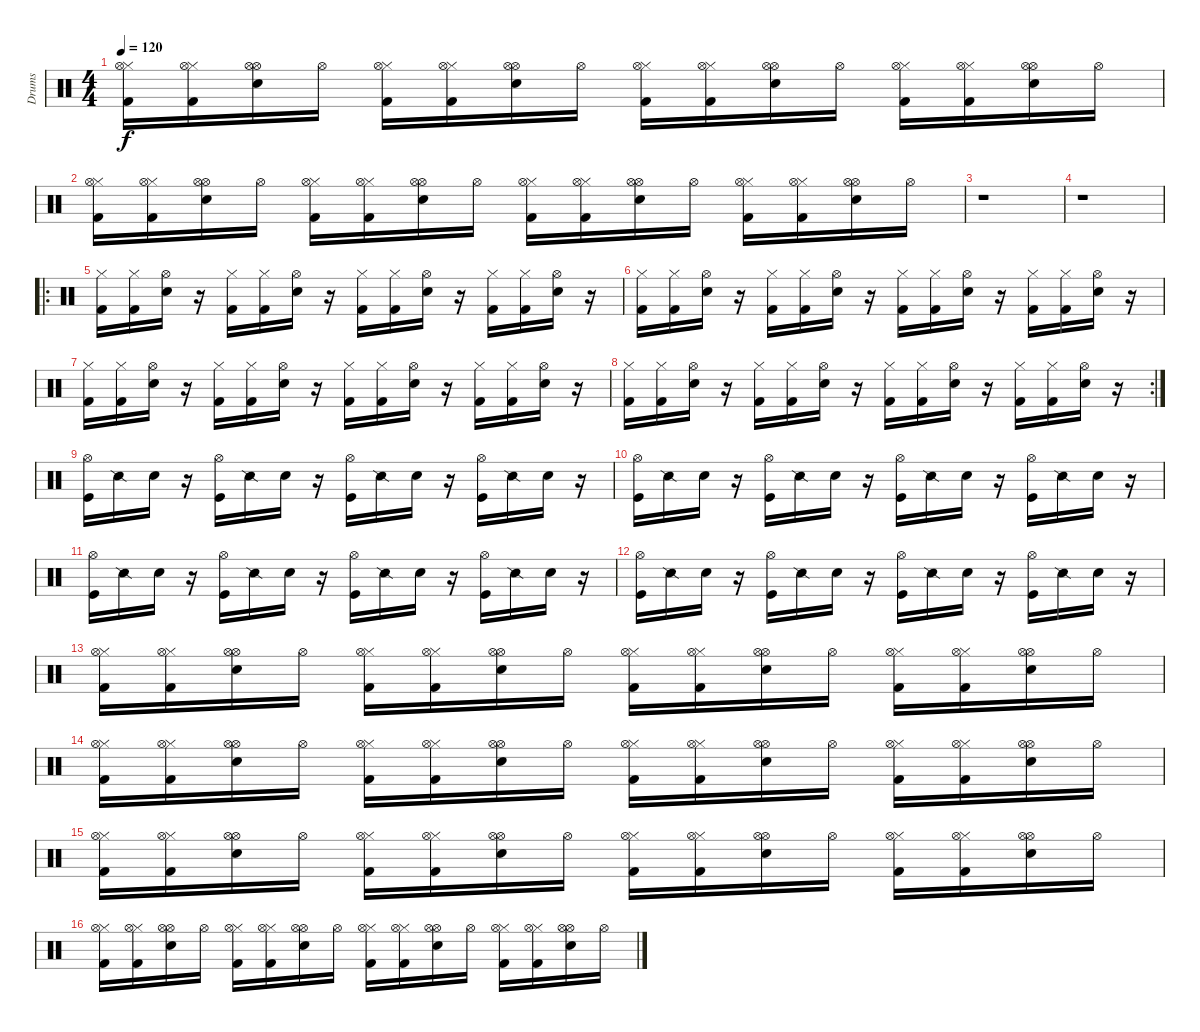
\track ("Drums" "Drums") {instrument percussion}
\staff {score}
\articulation defaults
\ts (4 4)
\tempo 120
\clef neutral
\ks c
("Hi-Hat (closed)" "Kick (hit) 2" "Hi-Hat (open)").16{dy f} ("Hi-Hat (closed)" "Kick (hit) 2" "Hi-Hat (open)").16 ("Hi-Hat (open)" "Snare (hit) 2" "Hi-Hat (open)").16 "Hi-Hat (open)".16 ("Hi-Hat (closed)" "Kick (hit) 2" "Hi-Hat (open)").16 ("Hi-Hat (closed)" "Kick (hit) 2" "Hi-Hat (open)").16 ("Hi-Hat (open)" "Snare (hit) 2" "Hi-Hat (open)").16 "Hi-Hat (open)".16 ("Hi-Hat (closed)" "Kick (hit) 2" "Hi-Hat (open)").16 ("Hi-Hat (closed)" "Kick (hit) 2" "Hi-Hat (open)").16 ("Hi-Hat (open)" "Snare (hit) 2" "Hi-Hat (open)").16 "Hi-Hat (open)".16 ("Hi-Hat (closed)" "Kick (hit) 2" "Hi-Hat (open)").16 ("Hi-Hat (closed)" "Kick (hit) 2" "Hi-Hat (open)").16 ("Hi-Hat (open)" "Snare (hit) 2" "Hi-Hat (open)").16 "Hi-Hat (open)".16 |
("Hi-Hat (closed)" "Kick (hit) 2" "Hi-Hat (open)").16 ("Hi-Hat (closed)" "Kick (hit) 2" "Hi-Hat (open)").16 ("Hi-Hat (open)" "Snare (hit) 2" "Hi-Hat (open)").16 "Hi-Hat (open)".16 ("Hi-Hat (closed)" "Kick (hit) 2" "Hi-Hat (open)").16 ("Hi-Hat (closed)" "Kick (hit) 2" "Hi-Hat (open)").16 ("Hi-Hat (open)" "Snare (hit) 2" "Hi-Hat (open)").16 "Hi-Hat (open)".16 ("Hi-Hat (closed)" "Kick (hit) 2" "Hi-Hat (open)").16 ("Hi-Hat (closed)" "Kick (hit) 2" "Hi-Hat (open)").16 ("Hi-Hat (open)" "Snare (hit) 2" "Hi-Hat (open)").16 "Hi-Hat (open)".16 ("Hi-Hat (closed)" "Kick (hit) 2" "Hi-Hat (open)").16 ("Hi-Hat (closed)" "Kick (hit) 2" "Hi-Hat (open)").16 ("Hi-Hat (open)" "Snare (hit) 2" "Hi-Hat (open)").16 "Hi-Hat (open)".16 |
r.1 |
r.1 |
\ro
("Hi-Hat (closed)" "Kick (hit) 2").16 ("Hi-Hat (closed)" "Kick (hit) 2").16 ("Hi-Hat (open)" "Snare (hit) 2").16 r.16 ("Hi-Hat (closed)" "Kick (hit) 2").16 ("Hi-Hat (closed)" "Kick (hit) 2").16 ("Hi-Hat (open)" "Snare (hit) 2").16 r.16 ("Hi-Hat (closed)" "Kick (hit) 2").16 ("Hi-Hat (closed)" "Kick (hit) 2").16 ("Hi-Hat (open)" "Snare (hit) 2").16 r.16 ("Hi-Hat (closed)" "Kick (hit) 2").16 ("Hi-Hat (closed)" "Kick (hit) 2").16 ("Hi-Hat (open)" "Snare (hit) 2").16 r.16 |
("Hi-Hat (closed)" "Kick (hit) 2").16 ("Hi-Hat (closed)" "Kick (hit) 2").16 ("Hi-Hat (open)" "Snare (hit) 2").16 r.16 ("Hi-Hat (closed)" "Kick (hit) 2").16 ("Hi-Hat (closed)" "Kick (hit) 2").16 ("Hi-Hat (open)" "Snare (hit) 2").16 r.16 ("Hi-Hat (closed)" "Kick (hit) 2").16 ("Hi-Hat (closed)" "Kick (hit) 2").16 ("Hi-Hat (open)" "Snare (hit) 2").16 r.16 ("Hi-Hat (closed)" "Kick (hit) 2").16 ("Hi-Hat (closed)" "Kick (hit) 2").16 ("Hi-Hat (open)" "Snare (hit) 2").16 r.16 |
("Hi-Hat (closed)" "Kick (hit) 2").16 ("Hi-Hat (closed)" "Kick (hit) 2").16 ("Hi-Hat (open)" "Snare (hit) 2").16 r.16 ("Hi-Hat (closed)" "Kick (hit) 2").16 ("Hi-Hat (closed)" "Kick (hit) 2").16 ("Hi-Hat (open)" "Snare (hit) 2").16 r.16 ("Hi-Hat (closed)" "Kick (hit) 2").16 ("Hi-Hat (closed)" "Kick (hit) 2").16 ("Hi-Hat (open)" "Snare (hit) 2").16 r.16 ("Hi-Hat (closed)" "Kick (hit) 2").16 ("Hi-Hat (closed)" "Kick (hit) 2").16 ("Hi-Hat (open)" "Snare (hit) 2").16 r.16 |
\rc 2
("Hi-Hat (closed)" "Kick (hit) 2").16 ("Hi-Hat (closed)" "Kick (hit) 2").16 ("Hi-Hat (open)" "Snare (hit) 2").16 r.16 ("Hi-Hat (closed)" "Kick (hit) 2").16 ("Hi-Hat (closed)" "Kick (hit) 2").16 ("Hi-Hat (open)" "Snare (hit) 2").16 r.16 ("Hi-Hat (closed)" "Kick (hit) 2").16 ("Hi-Hat (closed)" "Kick (hit) 2").16 ("Hi-Hat (open)" "Snare (hit) 2").16 r.16 ("Hi-Hat (closed)" "Kick (hit) 2").16 ("Hi-Hat (closed)" "Kick (hit) 2").16 ("Hi-Hat (open)" "Snare (hit) 2").16 r.16 |
("Hi-Hat (open)" "Kick (hit)").16 "Snare (side stick) 2".16 "Snare (hit) 2".16 r.16 ("Hi-Hat (open)" "Kick (hit)").16 "Snare (side stick) 2".16 "Snare (hit) 2".16 r.16 ("Hi-Hat (open)" "Kick (hit)").16 "Snare (side stick) 2".16 "Snare (hit) 2".16 r.16 ("Hi-Hat (open)" "Kick (hit)").16 "Snare (side stick) 2".16 "Snare (hit) 2".16 r.16 |
("Hi-Hat (open)" "Kick (hit)").16 "Snare (side stick) 2".16 "Snare (hit) 2".16 r.16 ("Hi-Hat (open)" "Kick (hit)").16 "Snare (side stick) 2".16 "Snare (hit) 2".16 r.16 ("Hi-Hat (open)" "Kick (hit)").16 "Snare (side stick) 2".16 "Snare (hit) 2".16 r.16 ("Hi-Hat (open)" "Kick (hit)").16 "Snare (side stick) 2".16 "Snare (hit) 2".16 r.16 |
("Hi-Hat (open)" "Kick (hit)").16 "Snare (side stick) 2".16 "Snare (hit) 2".16 r.16 ("Hi-Hat (open)" "Kick (hit)").16 "Snare (side stick) 2".16 "Snare (hit) 2".16 r.16 ("Hi-Hat (open)" "Kick (hit)").16 "Snare (side stick) 2".16 "Snare (hit) 2".16 r.16 ("Hi-Hat (open)" "Kick (hit)").16 "Snare (side stick) 2".16 "Snare (hit) 2".16 r.16 |
("Hi-Hat (open)" "Kick (hit)").16 "Snare (side stick) 2".16 "Snare (hit) 2".16 r.16 ("Hi-Hat (open)" "Kick (hit)").16 "Snare (side stick) 2".16 "Snare (hit) 2".16 r.16 ("Hi-Hat (open)" "Kick (hit)").16 "Snare (side stick) 2".16 "Snare (hit) 2".16 r.16 ("Hi-Hat (open)" "Kick (hit)").16 "Snare (side stick) 2".16 "Snare (hit) 2".16 r.16 |
("Hi-Hat (closed)" "Kick (hit) 2" "Hi-Hat (open)").16 ("Hi-Hat (closed)" "Kick (hit) 2" "Hi-Hat (open)").16 ("Hi-Hat (open)" "Snare (hit) 2" "Hi-Hat (open)").16 "Hi-Hat (open)".16 ("Hi-Hat (closed)" "Kick (hit) 2" "Hi-Hat (open)").16 ("Hi-Hat (closed)" "Kick (hit) 2" "Hi-Hat (open)").16 ("Hi-Hat (open)" "Snare (hit) 2" "Hi-Hat (open)").16 "Hi-Hat (open)".16 ("Hi-Hat (closed)" "Kick (hit) 2" "Hi-Hat (open)").16 ("Hi-Hat (closed)" "Kick (hit) 2" "Hi-Hat (open)").16 ("Hi-Hat (open)" "Snare (hit) 2" "Hi-Hat (open)").16 "Hi-Hat (open)".16 ("Hi-Hat (closed)" "Kick (hit) 2" "Hi-Hat (open)").16 ("Hi-Hat (closed)" "Kick (hit) 2" "Hi-Hat (open)").16 ("Hi-Hat (open)" "Snare (hit) 2" "Hi-Hat (open)").16 "Hi-Hat (open)".16 |
("Hi-Hat (closed)" "Kick (hit) 2" "Hi-Hat (open)").16 ("Hi-Hat (closed)" "Kick (hit) 2" "Hi-Hat (open)").16 ("Hi-Hat (open)" "Snare (hit) 2" "Hi-Hat (open)").16 "Hi-Hat (open)".16 ("Hi-Hat (closed)" "Kick (hit) 2" "Hi-Hat (open)").16 ("Hi-Hat (closed)" "Kick (hit) 2" "Hi-Hat (open)").16 ("Hi-Hat (open)" "Snare (hit) 2" "Hi-Hat (open)").16 "Hi-Hat (open)".16 ("Hi-Hat (closed)" "Kick (hit) 2" "Hi-Hat (open)").16 ("Hi-Hat (closed)" "Kick (hit) 2" "Hi-Hat (open)").16 ("Hi-Hat (open)" "Snare (hit) 2" "Hi-Hat (open)").16 "Hi-Hat (open)".16 ("Hi-Hat (closed)" "Kick (hit) 2" "Hi-Hat (open)").16 ("Hi-Hat (closed)" "Kick (hit) 2" "Hi-Hat (open)").16 ("Hi-Hat (open)" "Snare (hit) 2" "Hi-Hat (open)").16 "Hi-Hat (open)".16 |
("Hi-Hat (closed)" "Kick (hit) 2" "Hi-Hat (open)").16 ("Hi-Hat (closed)" "Kick (hit) 2" "Hi-Hat (open)").16 ("Hi-Hat (open)" "Snare (hit) 2" "Hi-Hat (open)").16 "Hi-Hat (open)".16 ("Hi-Hat (closed)" "Kick (hit) 2" "Hi-Hat (open)").16 ("Hi-Hat (closed)" "Kick (hit) 2" "Hi-Hat (open)").16 ("Hi-Hat (open)" "Snare (hit) 2" "Hi-Hat (open)").16 "Hi-Hat (open)".16 ("Hi-Hat (closed)" "Kick (hit) 2" "Hi-Hat (open)").16 ("Hi-Hat (closed)" "Kick (hit) 2" "Hi-Hat (open)").16 ("Hi-Hat (open)" "Snare (hit) 2" "Hi-Hat (open)").16 "Hi-Hat (open)".16 ("Hi-Hat (closed)" "Kick (hit) 2" "Hi-Hat (open)").16 ("Hi-Hat (closed)" "Kick (hit) 2" "Hi-Hat (open)").16 ("Hi-Hat (open)" "Snare (hit) 2" "Hi-Hat (open)").16 "Hi-Hat (open)".16 |
("Hi-Hat (closed)" "Kick (hit) 2" "Hi-Hat (open)").16 ("Hi-Hat (closed)" "Kick (hit) 2" "Hi-Hat (open)").16 ("Hi-Hat (open)" "Snare (hit) 2" "Hi-Hat (open)").16 "Hi-Hat (open)".16 ("Hi-Hat (closed)" "Kick (hit) 2" "Hi-Hat (open)").16 ("Hi-Hat (closed)" "Kick (hit) 2" "Hi-Hat (open)").16 ("Hi-Hat (open)" "Snare (hit) 2" "Hi-Hat (open)").16 "Hi-Hat (open)".16 ("Hi-Hat (closed)" "Kick (hit) 2" "Hi-Hat (open)").16 ("Hi-Hat (closed)" "Kick (hit) 2" "Hi-Hat (open)").16 ("Hi-Hat (open)" "Snare (hit) 2" "Hi-Hat (open)").16 "Hi-Hat (open)".16 ("Hi-Hat (closed)" "Kick (hit) 2" "Hi-Hat (open)").16 ("Hi-Hat (closed)" "Kick (hit) 2" "Hi-Hat (open)").16 ("Hi-Hat (open)" "Snare (hit) 2" "Hi-Hat (open)").16 "Hi-Hat (open)".16
